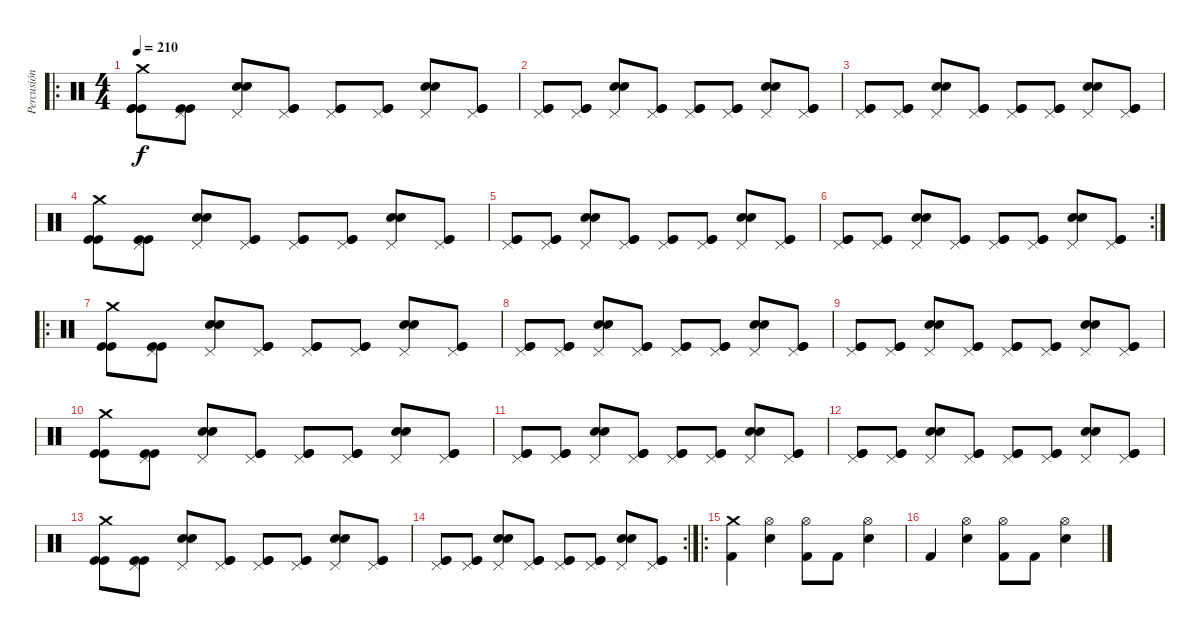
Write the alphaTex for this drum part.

\track ("Percusión" "Percusión") {instrument percussion}
\staff {score}
\articulation defaults
\ro
\ts (4 4)
\tempo 210
\clef neutral
\ks c
("Crash medium (hit)" "Kick (hit)" "Kick (hit)" "Kick (hit)").8{dy f} ("Pedal Hi-Hat (hit)" "Kick (hit)" "Kick (hit)").8 ("Pedal Hi-Hat (hit)" "Snare (hit) 2" "Snare (hit) 2").8 ("Pedal Hi-Hat (hit)" "Kick (hit)" "Kick (hit)").8 ("Pedal Hi-Hat (hit)" "Kick (hit)" "Kick (hit)").8 ("Pedal Hi-Hat (hit)" "Kick (hit)" "Kick (hit)").8 ("Pedal Hi-Hat (hit)" "Snare (hit) 2" "Snare (hit) 2").8 ("Pedal Hi-Hat (hit)" "Kick (hit)" "Kick (hit)").8 |
("Pedal Hi-Hat (hit)" "Kick (hit)" "Kick (hit)").8 ("Pedal Hi-Hat (hit)" "Kick (hit)" "Kick (hit)").8 ("Pedal Hi-Hat (hit)" "Snare (hit) 2" "Snare (hit) 2").8 ("Pedal Hi-Hat (hit)" "Kick (hit)" "Kick (hit)").8 ("Pedal Hi-Hat (hit)" "Kick (hit)" "Kick (hit)").8 ("Pedal Hi-Hat (hit)" "Kick (hit)" "Kick (hit)").8 ("Pedal Hi-Hat (hit)" "Snare (hit) 2" "Snare (hit) 2").8 ("Pedal Hi-Hat (hit)" "Kick (hit)" "Kick (hit)").8 |
("Pedal Hi-Hat (hit)" "Kick (hit)" "Kick (hit)").8 ("Pedal Hi-Hat (hit)" "Kick (hit)" "Kick (hit)").8 ("Pedal Hi-Hat (hit)" "Snare (hit) 2" "Snare (hit) 2").8 ("Pedal Hi-Hat (hit)" "Kick (hit)" "Kick (hit)").8 ("Pedal Hi-Hat (hit)" "Kick (hit)" "Kick (hit)").8 ("Pedal Hi-Hat (hit)" "Kick (hit)" "Kick (hit)").8 ("Pedal Hi-Hat (hit)" "Snare (hit) 2" "Snare (hit) 2").8 ("Pedal Hi-Hat (hit)" "Kick (hit)" "Kick (hit)").8 |
("Crash medium (hit)" "Kick (hit)" "Kick (hit)").8 ("Pedal Hi-Hat (hit)" "Kick (hit)" "Kick (hit)").8 ("Pedal Hi-Hat (hit)" "Snare (hit) 2" "Snare (hit) 2").8 ("Pedal Hi-Hat (hit)" "Kick (hit)" "Kick (hit)").8 ("Pedal Hi-Hat (hit)" "Kick (hit)" "Kick (hit)").8 ("Pedal Hi-Hat (hit)" "Kick (hit)" "Kick (hit)").8 ("Pedal Hi-Hat (hit)" "Snare (hit) 2" "Snare (hit) 2").8 ("Pedal Hi-Hat (hit)" "Kick (hit)" "Kick (hit)").8 |
("Pedal Hi-Hat (hit)" "Kick (hit)" "Kick (hit)").8 ("Pedal Hi-Hat (hit)" "Kick (hit)" "Kick (hit)").8 ("Pedal Hi-Hat (hit)" "Snare (hit) 2" "Snare (hit) 2").8 ("Pedal Hi-Hat (hit)" "Kick (hit)" "Kick (hit)").8 ("Pedal Hi-Hat (hit)" "Kick (hit)" "Kick (hit)").8 ("Pedal Hi-Hat (hit)" "Kick (hit)" "Kick (hit)").8 ("Pedal Hi-Hat (hit)" "Snare (hit) 2" "Snare (hit) 2").8 ("Pedal Hi-Hat (hit)" "Kick (hit)" "Kick (hit)").8 |
\rc 2
("Pedal Hi-Hat (hit)" "Kick (hit)" "Kick (hit)").8 ("Pedal Hi-Hat (hit)" "Kick (hit)" "Kick (hit)").8 ("Pedal Hi-Hat (hit)" "Snare (hit) 2" "Snare (hit) 2").8 ("Pedal Hi-Hat (hit)" "Kick (hit)" "Kick (hit)").8 ("Pedal Hi-Hat (hit)" "Kick (hit)" "Kick (hit)").8 ("Pedal Hi-Hat (hit)" "Kick (hit)" "Kick (hit)").8 ("Pedal Hi-Hat (hit)" "Snare (hit) 2" "Snare (hit) 2").8 ("Pedal Hi-Hat (hit)" "Kick (hit)" "Kick (hit)").8 |
\ro
("Crash medium (hit)" "Kick (hit)" "Kick (hit)").8 ("Pedal Hi-Hat (hit)" "Kick (hit)" "Kick (hit)").8 ("Pedal Hi-Hat (hit)" "Snare (hit) 2" "Snare (hit) 2").8 ("Pedal Hi-Hat (hit)" "Kick (hit)" "Kick (hit)").8 ("Pedal Hi-Hat (hit)" "Kick (hit)" "Kick (hit)").8 ("Pedal Hi-Hat (hit)" "Kick (hit)" "Kick (hit)").8 ("Pedal Hi-Hat (hit)" "Snare (hit) 2" "Snare (hit) 2").8 ("Pedal Hi-Hat (hit)" "Kick (hit)" "Kick (hit)").8 |
("Pedal Hi-Hat (hit)" "Kick (hit)" "Kick (hit)").8 ("Pedal Hi-Hat (hit)" "Kick (hit)" "Kick (hit)").8 ("Pedal Hi-Hat (hit)" "Snare (hit) 2" "Snare (hit) 2").8 ("Pedal Hi-Hat (hit)" "Kick (hit)" "Kick (hit)").8 ("Pedal Hi-Hat (hit)" "Kick (hit)" "Kick (hit)").8 ("Pedal Hi-Hat (hit)" "Kick (hit)" "Kick (hit)").8 ("Pedal Hi-Hat (hit)" "Snare (hit) 2" "Snare (hit) 2").8 ("Pedal Hi-Hat (hit)" "Kick (hit)" "Kick (hit)").8 |
("Pedal Hi-Hat (hit)" "Kick (hit)" "Kick (hit)").8 ("Pedal Hi-Hat (hit)" "Kick (hit)" "Kick (hit)").8 ("Pedal Hi-Hat (hit)" "Snare (hit) 2" "Snare (hit) 2").8 ("Pedal Hi-Hat (hit)" "Kick (hit)" "Kick (hit)").8 ("Pedal Hi-Hat (hit)" "Kick (hit)" "Kick (hit)").8 ("Pedal Hi-Hat (hit)" "Kick (hit)" "Kick (hit)").8 ("Pedal Hi-Hat (hit)" "Snare (hit) 2" "Snare (hit) 2").8 ("Pedal Hi-Hat (hit)" "Kick (hit)" "Kick (hit)").8 |
("Crash medium (hit)" "Kick (hit)" "Kick (hit)").8 ("Pedal Hi-Hat (hit)" "Kick (hit)" "Kick (hit)").8 ("Pedal Hi-Hat (hit)" "Snare (hit) 2" "Snare (hit) 2").8 ("Pedal Hi-Hat (hit)" "Kick (hit)" "Kick (hit)").8 ("Pedal Hi-Hat (hit)" "Kick (hit)" "Kick (hit)").8 ("Pedal Hi-Hat (hit)" "Kick (hit)" "Kick (hit)").8 ("Pedal Hi-Hat (hit)" "Snare (hit) 2" "Snare (hit) 2").8 ("Pedal Hi-Hat (hit)" "Kick (hit)" "Kick (hit)").8 |
("Pedal Hi-Hat (hit)" "Kick (hit)" "Kick (hit)").8 ("Pedal Hi-Hat (hit)" "Kick (hit)" "Kick (hit)").8 ("Pedal Hi-Hat (hit)" "Snare (hit) 2" "Snare (hit) 2").8 ("Pedal Hi-Hat (hit)" "Kick (hit)" "Kick (hit)").8 ("Pedal Hi-Hat (hit)" "Kick (hit)" "Kick (hit)").8 ("Pedal Hi-Hat (hit)" "Kick (hit)" "Kick (hit)").8 ("Pedal Hi-Hat (hit)" "Snare (hit) 2" "Snare (hit) 2").8 ("Pedal Hi-Hat (hit)" "Kick (hit)" "Kick (hit)").8 |
("Pedal Hi-Hat (hit)" "Kick (hit)" "Kick (hit)").8 ("Pedal Hi-Hat (hit)" "Kick (hit)" "Kick (hit)").8 ("Pedal Hi-Hat (hit)" "Snare (hit) 2" "Snare (hit) 2").8 ("Pedal Hi-Hat (hit)" "Kick (hit)" "Kick (hit)").8 ("Pedal Hi-Hat (hit)" "Kick (hit)" "Kick (hit)").8 ("Pedal Hi-Hat (hit)" "Kick (hit)" "Kick (hit)").8 ("Pedal Hi-Hat (hit)" "Snare (hit) 2" "Snare (hit) 2").8 ("Pedal Hi-Hat (hit)" "Kick (hit)" "Kick (hit)").8 |
("Crash medium (hit)" "Kick (hit)" "Kick (hit)").8 ("Pedal Hi-Hat (hit)" "Kick (hit)" "Kick (hit)").8 ("Pedal Hi-Hat (hit)" "Snare (hit) 2" "Snare (hit) 2").8 ("Pedal Hi-Hat (hit)" "Kick (hit)" "Kick (hit)").8 ("Pedal Hi-Hat (hit)" "Kick (hit)" "Kick (hit)").8 ("Pedal Hi-Hat (hit)" "Kick (hit)" "Kick (hit)").8 ("Pedal Hi-Hat (hit)" "Snare (hit) 2" "Snare (hit) 2").8 ("Pedal Hi-Hat (hit)" "Kick (hit)" "Kick (hit)").8 |
\rc 2
("Pedal Hi-Hat (hit)" "Kick (hit)" "Kick (hit)").8 ("Pedal Hi-Hat (hit)" "Kick (hit)" "Kick (hit)").8 ("Pedal Hi-Hat (hit)" "Snare (hit) 2" "Snare (hit) 2").8 ("Pedal Hi-Hat (hit)" "Kick (hit)" "Kick (hit)").8 ("Pedal Hi-Hat (hit)" "Kick (hit)" "Kick (hit)").8 ("Pedal Hi-Hat (hit)" "Kick (hit)" "Kick (hit)").8 ("Pedal Hi-Hat (hit)" "Snare (hit) 2" "Snare (hit) 2").8 ("Pedal Hi-Hat (hit)" "Kick (hit)" "Kick (hit)").8 |
\ro
("Kick (hit) 2" "Crash medium (hit)").4 ("Snare (hit) 2" "Hi-Hat (open)").4 ("Kick (hit) 2" "Hi-Hat (open)").8 "Kick (hit) 2".8 ("Snare (hit) 2" "Hi-Hat (open)").4 |
"Kick (hit) 2".4 ("Snare (hit) 2" "Hi-Hat (open)").4 ("Kick (hit) 2" "Hi-Hat (open)").8 "Kick (hit) 2".8 ("Snare (hit) 2" "Hi-Hat (open)").4
